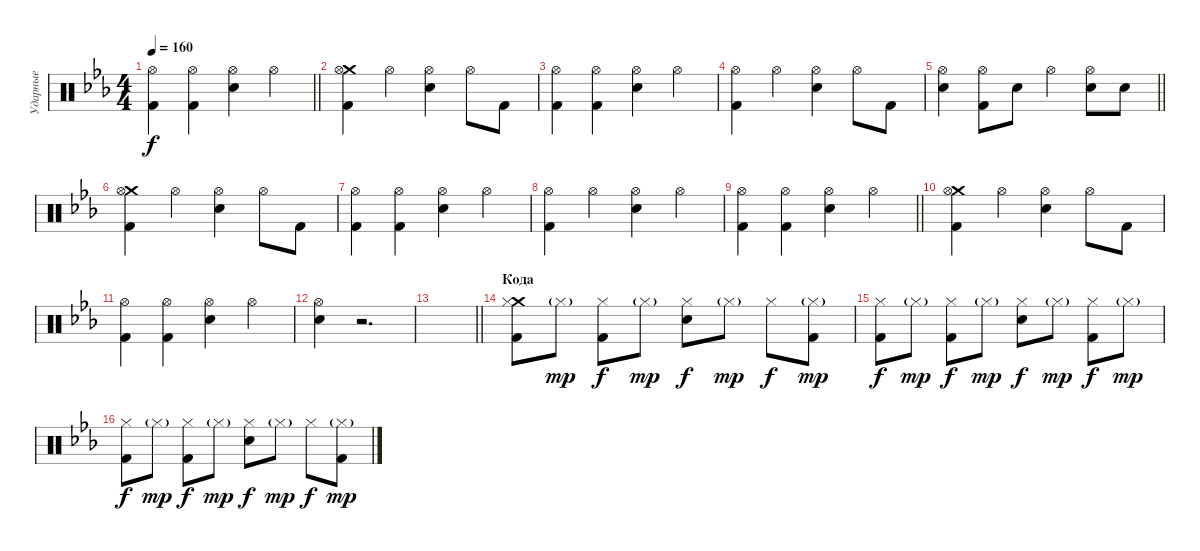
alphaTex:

\track ("Ударные" "Ударные") {instrument percussion}
\staff {score}
\articulation defaults
\ts (4 4)
\tempo 160
\clef neutral
\barLineRight lightlight
\ks cminor
("Kick (hit) 2" "Hi-Hat (open)").4{dy f} ("Kick (hit) 2" "Hi-Hat (open)").4 ("Electric Snare (hit)" "Hi-Hat (open)").4 "Hi-Hat (open)".4 |
("Crash medium (hit)" "Kick (hit) 2" "Hi-Hat (open)").4 "Hi-Hat (open)".4 ("Electric Snare (hit)" "Hi-Hat (open)").4 "Hi-Hat (open)".8 "Kick (hit) 2".8 |
("Kick (hit) 2" "Hi-Hat (open)").4 ("Kick (hit) 2" "Hi-Hat (open)").4 ("Electric Snare (hit)" "Hi-Hat (open)").4 "Hi-Hat (open)".4 |
("Kick (hit) 2" "Hi-Hat (open)").4 "Hi-Hat (open)".4 ("Electric Snare (hit)" "Hi-Hat (open)").4 "Hi-Hat (open)".8 "Kick (hit) 2".8 |
\barLineRight lightlight
("Electric Snare (hit)" "Hi-Hat (open)").4 ("Kick (hit) 2" "Hi-Hat (open)").8 "Electric Snare (hit)".8 "Hi-Hat (open)".4 ("Electric Snare (hit)" "Hi-Hat (open)").8 "Electric Snare (hit)".8 |
("Crash medium (hit)" "Kick (hit) 2" "Hi-Hat (open)").4 "Hi-Hat (open)".4 ("Electric Snare (hit)" "Hi-Hat (open)").4 "Hi-Hat (open)".8 "Kick (hit) 2".8 |
("Kick (hit) 2" "Hi-Hat (open)").4 ("Kick (hit) 2" "Hi-Hat (open)").4 ("Electric Snare (hit)" "Hi-Hat (open)").4 "Hi-Hat (open)".4 |
("Kick (hit) 2" "Hi-Hat (open)").4 "Hi-Hat (open)".4 ("Electric Snare (hit)" "Hi-Hat (open)").4 "Hi-Hat (open)".4 |
\barLineRight lightlight
("Kick (hit) 2" "Hi-Hat (open)").4 ("Kick (hit) 2" "Hi-Hat (open)").4 ("Electric Snare (hit)" "Hi-Hat (open)").4 "Hi-Hat (open)".4 |
("Crash medium (hit)" "Kick (hit) 2" "Hi-Hat (open)").4 "Hi-Hat (open)".4 ("Electric Snare (hit)" "Hi-Hat (open)").4 "Hi-Hat (open)".8 "Kick (hit) 2".8 |
("Kick (hit) 2" "Hi-Hat (open)").4 ("Kick (hit) 2" "Hi-Hat (open)").4 ("Electric Snare (hit)" "Hi-Hat (open)").4 "Hi-Hat (open)".4 |
("Electric Snare (hit)" "Hi-Hat (open)").4 r.2{d} |
\barLineRight lightlight
|
\section ("" "Кода")
("Crash medium (hit)" "Kick (hit) 2" "Hi-Hat (closed)").8 "Hi-Hat (closed)"{g}.8{dy mp} ("Kick (hit) 2" "Hi-Hat (closed)").8{dy f} "Hi-Hat (closed)"{g}.8{dy mp} ("Electric Snare (hit)" "Hi-Hat (closed)").8{dy f} "Hi-Hat (closed)"{g}.8{dy mp} "Hi-Hat (closed)".8{dy f} ("Kick (hit) 2" "Hi-Hat (closed)"{g}).8{dy mp} |
("Kick (hit) 2" "Hi-Hat (closed)").8{dy f} "Hi-Hat (closed)"{g}.8{dy mp} ("Kick (hit) 2" "Hi-Hat (closed)").8{dy f} "Hi-Hat (closed)"{g}.8{dy mp} ("Electric Snare (hit)" "Hi-Hat (closed)").8{dy f} "Hi-Hat (closed)"{g}.8{dy mp} ("Kick (hit) 2" "Hi-Hat (closed)").8{dy f} "Hi-Hat (closed)"{g}.8{dy mp} |
("Kick (hit) 2" "Hi-Hat (closed)").8{dy f} "Hi-Hat (closed)"{g}.8{dy mp} ("Kick (hit) 2" "Hi-Hat (closed)").8{dy f} "Hi-Hat (closed)"{g}.8{dy mp} ("Electric Snare (hit)" "Hi-Hat (closed)").8{dy f} "Hi-Hat (closed)"{g}.8{dy mp} "Hi-Hat (closed)".8{dy f} ("Kick (hit) 2" "Hi-Hat (closed)"{g}).8{dy mp}
